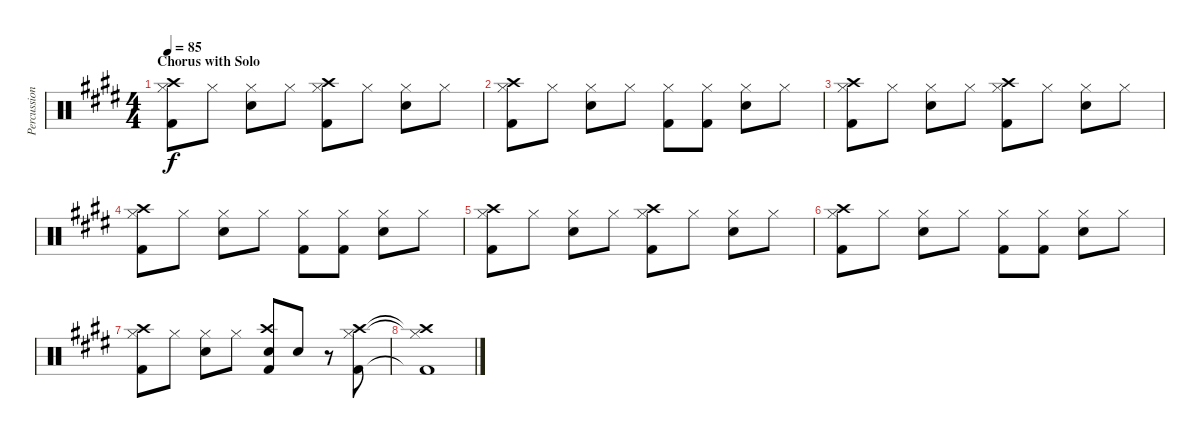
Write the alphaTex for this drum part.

\track ("Percussion" "Percussion") {instrument percussion}
\staff {score}
\articulation defaults
\ts (4 4)
\section ("" "Chorus with Solo")
\tempo 85
\clef neutral
\ks e
("Kick (hit) 2" "Hi-Hat (closed)" "Crash high (hit)").8{dy f} "Hi-Hat (closed)".8 ("Snare (hit) 2" "Hi-Hat (closed)").8 "Hi-Hat (closed)".8 ("Kick (hit) 2" "Hi-Hat (closed)" "Crash high (hit)").8 "Hi-Hat (closed)".8 ("Snare (hit) 2" "Hi-Hat (closed)").8 "Hi-Hat (closed)".8 |
("Kick (hit) 2" "Hi-Hat (closed)" "Crash high (hit)").8 "Hi-Hat (closed)".8 ("Snare (hit) 2" "Hi-Hat (closed)").8 "Hi-Hat (closed)".8 ("Kick (hit) 2" "Hi-Hat (closed)").8 ("Kick (hit) 2" "Hi-Hat (closed)").8 ("Snare (hit) 2" "Hi-Hat (closed)").8 "Hi-Hat (closed)".8 |
("Kick (hit) 2" "Hi-Hat (closed)" "Crash high (hit)").8 "Hi-Hat (closed)".8 ("Snare (hit) 2" "Hi-Hat (closed)").8 "Hi-Hat (closed)".8 ("Kick (hit) 2" "Hi-Hat (closed)" "Crash high (hit)").8 "Hi-Hat (closed)".8 ("Snare (hit) 2" "Hi-Hat (closed)").8 "Hi-Hat (closed)".8 |
("Kick (hit) 2" "Hi-Hat (closed)" "Crash high (hit)").8 "Hi-Hat (closed)".8 ("Snare (hit) 2" "Hi-Hat (closed)").8 "Hi-Hat (closed)".8 ("Kick (hit) 2" "Hi-Hat (closed)").8 ("Kick (hit) 2" "Hi-Hat (closed)").8 ("Snare (hit) 2" "Hi-Hat (closed)").8 "Hi-Hat (closed)".8 |
("Kick (hit) 2" "Hi-Hat (closed)" "Crash high (hit)").8 "Hi-Hat (closed)".8 ("Snare (hit) 2" "Hi-Hat (closed)").8 "Hi-Hat (closed)".8 ("Kick (hit) 2" "Hi-Hat (closed)" "Crash high (hit)").8 "Hi-Hat (closed)".8 ("Snare (hit) 2" "Hi-Hat (closed)").8 "Hi-Hat (closed)".8 |
("Kick (hit) 2" "Hi-Hat (closed)" "Crash high (hit)").8 "Hi-Hat (closed)".8 ("Snare (hit) 2" "Hi-Hat (closed)").8 "Hi-Hat (closed)".8 ("Kick (hit) 2" "Hi-Hat (closed)").8 ("Kick (hit) 2" "Hi-Hat (closed)").8 ("Snare (hit) 2" "Hi-Hat (closed)").8 "Hi-Hat (closed)".8 |
("Kick (hit) 2" "Hi-Hat (closed)" "Crash high (hit)").8 "Hi-Hat (closed)".8 ("Snare (hit) 2" "Hi-Hat (closed)").8 "Hi-Hat (closed)".8 ("Kick (hit) 2" "Snare (hit) 2" "Crash high (hit)").8 "Snare (hit) 2".8 r.8 ("Kick (hit) 2" "Hi-Hat (closed)" "Crash high (hit)").8 |
("Kick (hit) 2"{t} "Hi-Hat (closed)"{t} "Crash high (hit)"{t}).1
